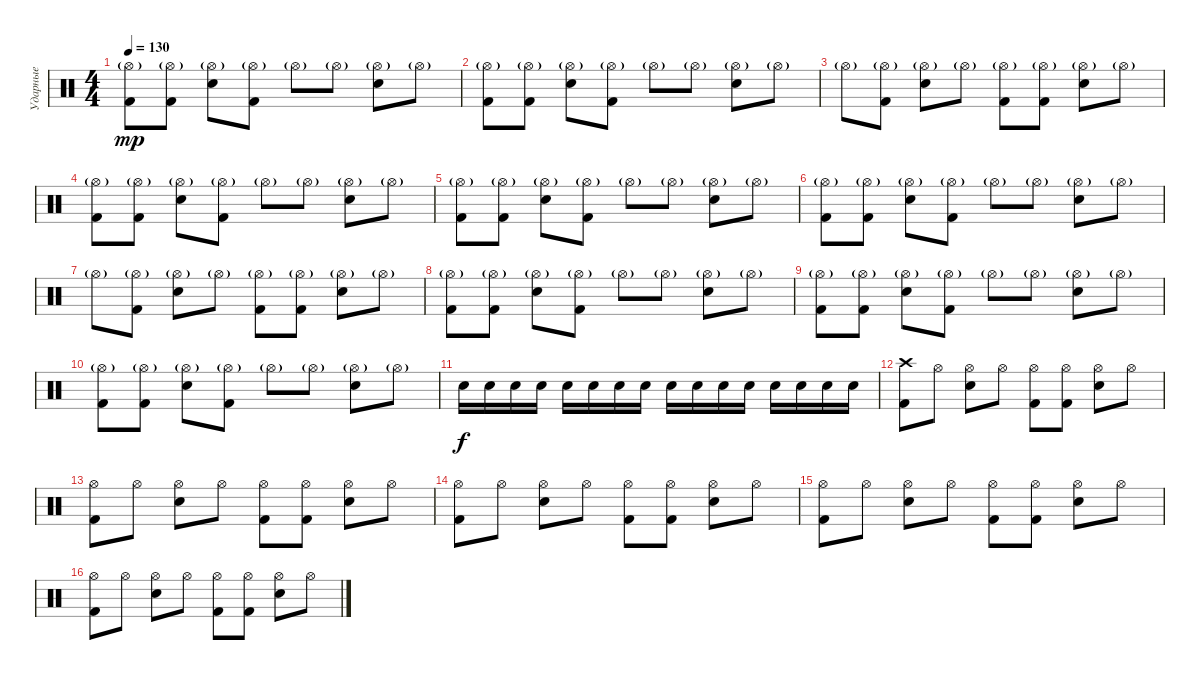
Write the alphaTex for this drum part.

\track ("Ударные" "Ударные") {instrument percussion}
\staff {score}
\articulation defaults
\ts (4 4)
\tempo 130
\clef neutral
\ks c
("Kick (hit) 2" "Hi-Hat (open)"{g}).8{dy mp} ("Kick (hit) 2" "Hi-Hat (open)"{g}).8 ("Electric Snare (hit)" "Hi-Hat (open)"{g}).8 ("Kick (hit) 2" "Hi-Hat (open)"{g}).8 "Hi-Hat (open)"{g}.8 "Hi-Hat (open)"{g}.8 ("Electric Snare (hit)" "Hi-Hat (open)"{g}).8 "Hi-Hat (open)"{g}.8 |
("Kick (hit) 2" "Hi-Hat (open)"{g}).8 ("Kick (hit) 2" "Hi-Hat (open)"{g}).8 ("Electric Snare (hit)" "Hi-Hat (open)"{g}).8 ("Kick (hit) 2" "Hi-Hat (open)"{g}).8 "Hi-Hat (open)"{g}.8 "Hi-Hat (open)"{g}.8 ("Electric Snare (hit)" "Hi-Hat (open)"{g}).8 "Hi-Hat (open)"{g}.8 |
"Hi-Hat (open)"{g}.8 ("Kick (hit) 2" "Hi-Hat (open)"{g}).8 ("Electric Snare (hit)" "Hi-Hat (open)"{g}).8 "Hi-Hat (open)"{g}.8 ("Kick (hit) 2" "Hi-Hat (open)"{g}).8 ("Kick (hit) 2" "Hi-Hat (open)"{g}).8 ("Electric Snare (hit)" "Hi-Hat (open)"{g}).8 "Hi-Hat (open)"{g}.8 |
("Kick (hit) 2" "Hi-Hat (open)"{g}).8 ("Kick (hit) 2" "Hi-Hat (open)"{g}).8 ("Electric Snare (hit)" "Hi-Hat (open)"{g}).8 ("Kick (hit) 2" "Hi-Hat (open)"{g}).8 "Hi-Hat (open)"{g}.8 "Hi-Hat (open)"{g}.8 ("Electric Snare (hit)" "Hi-Hat (open)"{g}).8 "Hi-Hat (open)"{g}.8 |
("Kick (hit) 2" "Hi-Hat (open)"{g}).8 ("Kick (hit) 2" "Hi-Hat (open)"{g}).8 ("Electric Snare (hit)" "Hi-Hat (open)"{g}).8 ("Kick (hit) 2" "Hi-Hat (open)"{g}).8 "Hi-Hat (open)"{g}.8 "Hi-Hat (open)"{g}.8 ("Electric Snare (hit)" "Hi-Hat (open)"{g}).8 "Hi-Hat (open)"{g}.8 |
("Kick (hit) 2" "Hi-Hat (open)"{g}).8 ("Kick (hit) 2" "Hi-Hat (open)"{g}).8 ("Electric Snare (hit)" "Hi-Hat (open)"{g}).8 ("Kick (hit) 2" "Hi-Hat (open)"{g}).8 "Hi-Hat (open)"{g}.8 "Hi-Hat (open)"{g}.8 ("Electric Snare (hit)" "Hi-Hat (open)"{g}).8 "Hi-Hat (open)"{g}.8 |
"Hi-Hat (open)"{g}.8 ("Kick (hit) 2" "Hi-Hat (open)"{g}).8 ("Electric Snare (hit)" "Hi-Hat (open)"{g}).8 "Hi-Hat (open)"{g}.8 ("Kick (hit) 2" "Hi-Hat (open)"{g}).8 ("Kick (hit) 2" "Hi-Hat (open)"{g}).8 ("Electric Snare (hit)" "Hi-Hat (open)"{g}).8 "Hi-Hat (open)"{g}.8 |
("Kick (hit) 2" "Hi-Hat (open)"{g}).8 ("Kick (hit) 2" "Hi-Hat (open)"{g}).8 ("Electric Snare (hit)" "Hi-Hat (open)"{g}).8 ("Kick (hit) 2" "Hi-Hat (open)"{g}).8 "Hi-Hat (open)"{g}.8 "Hi-Hat (open)"{g}.8 ("Electric Snare (hit)" "Hi-Hat (open)"{g}).8 "Hi-Hat (open)"{g}.8 |
("Kick (hit) 2" "Hi-Hat (open)"{g}).8 ("Kick (hit) 2" "Hi-Hat (open)"{g}).8 ("Electric Snare (hit)" "Hi-Hat (open)"{g}).8 ("Kick (hit) 2" "Hi-Hat (open)"{g}).8 "Hi-Hat (open)"{g}.8 "Hi-Hat (open)"{g}.8 ("Electric Snare (hit)" "Hi-Hat (open)"{g}).8 "Hi-Hat (open)"{g}.8 |
("Kick (hit) 2" "Hi-Hat (open)"{g}).8 ("Kick (hit) 2" "Hi-Hat (open)"{g}).8 ("Electric Snare (hit)" "Hi-Hat (open)"{g}).8 ("Kick (hit) 2" "Hi-Hat (open)"{g}).8 "Hi-Hat (open)"{g}.8 "Hi-Hat (open)"{g}.8 ("Electric Snare (hit)" "Hi-Hat (open)"{g}).8 "Hi-Hat (open)"{g}.8 |
"Electric Snare (hit)".16{dy f} "Electric Snare (hit)".16 "Electric Snare (hit)".16 "Electric Snare (hit)".16 "Electric Snare (hit)".16 "Electric Snare (hit)".16 "Electric Snare (hit)".16 "Electric Snare (hit)".16 "Electric Snare (hit)".16 "Electric Snare (hit)".16 "Electric Snare (hit)".16 "Electric Snare (hit)".16 "Electric Snare (hit)".16 "Electric Snare (hit)".16 "Electric Snare (hit)".16 "Electric Snare (hit)".16 |
("Crash high (hit)" "Kick (hit) 2").8 "Hi-Hat (open)".8 ("Electric Snare (hit)" "Hi-Hat (open)").8 "Hi-Hat (open)".8 ("Hi-Hat (open)" "Kick (hit) 2").8 ("Hi-Hat (open)" "Kick (hit) 2").8 ("Hi-Hat (open)" "Electric Snare (hit)").8 "Hi-Hat (open)".8 |
("Hi-Hat (open)" "Kick (hit) 2").8 "Hi-Hat (open)".8 ("Electric Snare (hit)" "Hi-Hat (open)").8 "Hi-Hat (open)".8 ("Hi-Hat (open)" "Kick (hit) 2").8 ("Hi-Hat (open)" "Kick (hit) 2").8 ("Hi-Hat (open)" "Electric Snare (hit)").8 "Hi-Hat (open)".8 |
("Hi-Hat (open)" "Kick (hit) 2").8 "Hi-Hat (open)".8 ("Electric Snare (hit)" "Hi-Hat (open)").8 "Hi-Hat (open)".8 ("Hi-Hat (open)" "Kick (hit) 2").8 ("Hi-Hat (open)" "Kick (hit) 2").8 ("Hi-Hat (open)" "Electric Snare (hit)").8 "Hi-Hat (open)".8 |
("Hi-Hat (open)" "Kick (hit) 2").8 "Hi-Hat (open)".8 ("Electric Snare (hit)" "Hi-Hat (open)").8 "Hi-Hat (open)".8 ("Hi-Hat (open)" "Kick (hit) 2").8 ("Hi-Hat (open)" "Kick (hit) 2").8 ("Hi-Hat (open)" "Electric Snare (hit)").8 "Hi-Hat (open)".8 |
("Hi-Hat (open)" "Kick (hit) 2").8 "Hi-Hat (open)".8 ("Electric Snare (hit)" "Hi-Hat (open)").8 "Hi-Hat (open)".8 ("Hi-Hat (open)" "Kick (hit) 2").8 ("Hi-Hat (open)" "Kick (hit) 2").8 ("Hi-Hat (open)" "Electric Snare (hit)").8 "Hi-Hat (open)".8
